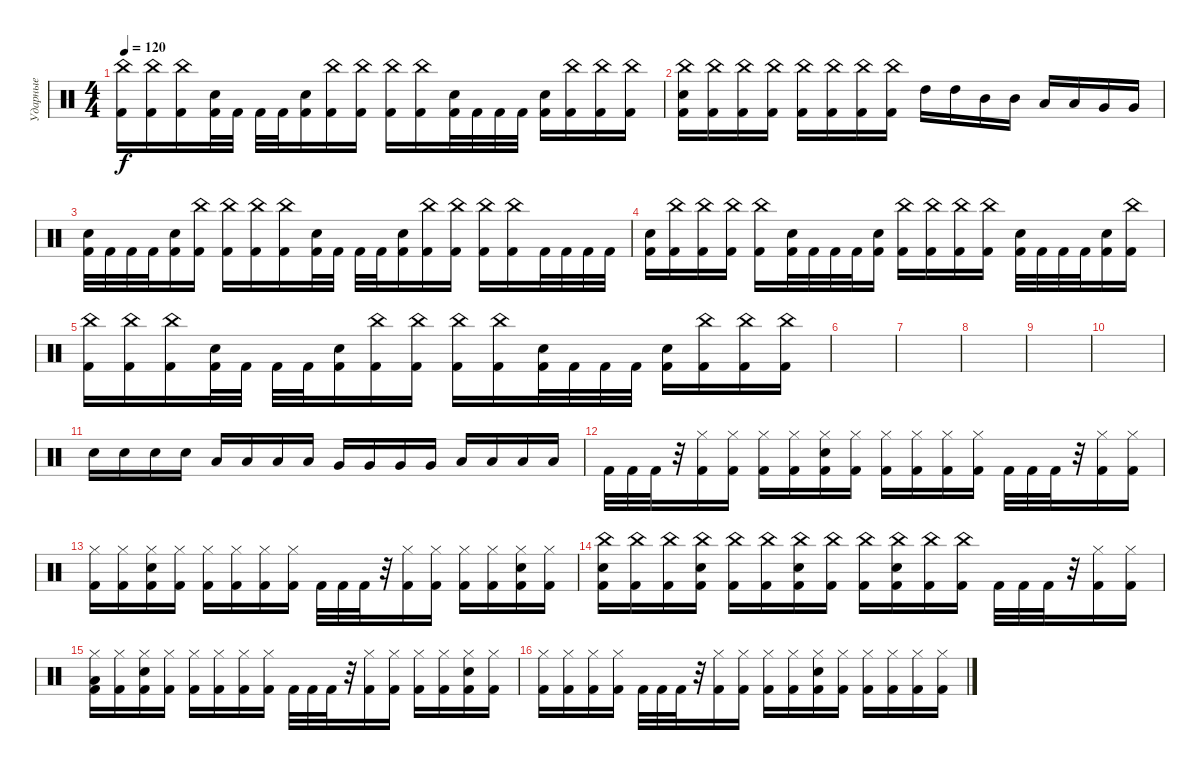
\track ("Ударные" "Ударные") {instrument percussion}
\staff {score}
\articulation defaults
\ts (4 4)
\tempo 120
\clef neutral
\ks c
("China (hit)" "Kick (hit) 2").16{dy f} ("China (hit)" "Kick (hit) 2").16 ("China (hit)" "Kick (hit) 2").16 ("Snare (hit) 2" "Kick (hit) 2").32 "Kick (hit) 2".32 "Kick (hit) 2".32 "Kick (hit) 2".32 ("Snare (hit) 2" "Kick (hit) 2").16 ("China (hit)" "Kick (hit) 2").16 ("China (hit)" "Kick (hit) 2").16 ("China (hit)" "Kick (hit) 2").16 ("China (hit)" "Kick (hit) 2").16 ("Snare (hit) 2" "Kick (hit) 2").32 "Kick (hit) 2".32 "Kick (hit) 2".32 "Kick (hit) 2".32 ("Snare (hit) 2" "Kick (hit) 2").16 ("China (hit)" "Kick (hit) 2").16 ("China (hit)" "Kick (hit) 2").16 ("China (hit)" "Kick (hit) 2").16 |
("China (hit)" "Snare (hit) 2" "Kick (hit) 2").16 ("China (hit)" "Kick (hit) 2").16 ("China (hit)" "Kick (hit) 2").16 ("China (hit)" "Kick (hit) 2").16 ("China (hit)" "Kick (hit) 2").16 ("China (hit)" "Kick (hit) 2").16 ("China (hit)" "Kick (hit) 2").16 ("China (hit)" "Kick (hit) 2").16 "High Tom (hit)".16 "High Tom (hit)".16 "Mid Tom (hit)".16 "Mid Tom (hit)".16 "Low Tom (hit)".16 "Low Tom (hit)".16 "Very Low Tom (hit)".16 "Very Low Tom (hit)".16 |
("Snare (hit) 2" "Kick (hit) 2").32 "Kick (hit) 2".32 "Kick (hit) 2".32 "Kick (hit) 2".32 ("Snare (hit) 2" "Kick (hit) 2").16 ("China (hit)" "Kick (hit) 2").16 ("China (hit)" "Kick (hit) 2").16 ("China (hit)" "Kick (hit) 2").16 ("China (hit)" "Kick (hit) 2").16 ("Snare (hit) 2" "Kick (hit) 2").32 "Kick (hit) 2".32 "Kick (hit) 2".32 "Kick (hit) 2".32 ("Snare (hit) 2" "Kick (hit) 2").16 ("China (hit)" "Kick (hit) 2").16 ("China (hit)" "Kick (hit) 2").16 ("China (hit)" "Kick (hit) 2").16 ("China (hit)" "Kick (hit) 2").16 "Kick (hit) 2".32 "Kick (hit) 2".32 "Kick (hit) 2".32 "Kick (hit) 2".32 |
("Snare (hit) 2" "Kick (hit) 2").16 ("China (hit)" "Kick (hit) 2").16 ("China (hit)" "Kick (hit) 2").16 ("China (hit)" "Kick (hit) 2").16 ("China (hit)" "Kick (hit) 2").16 ("Snare (hit) 2" "Kick (hit) 2").32 "Kick (hit) 2".32 "Kick (hit) 2".32 "Kick (hit) 2".32 ("Snare (hit) 2" "Kick (hit) 2").16 ("China (hit)" "Kick (hit) 2").16 ("China (hit)" "Kick (hit) 2").16 ("China (hit)" "Kick (hit) 2").16 ("China (hit)" "Kick (hit) 2").16 ("Snare (hit) 2" "Kick (hit) 2").32 "Kick (hit) 2".32 "Kick (hit) 2".32 "Kick (hit) 2".32 ("Snare (hit) 2" "Kick (hit) 2").16 ("China (hit)" "Kick (hit) 2").16 |
("China (hit)" "Kick (hit) 2").16 ("China (hit)" "Kick (hit) 2").16 ("China (hit)" "Kick (hit) 2").16 ("Snare (hit) 2" "Kick (hit) 2").32 "Kick (hit) 2".32 "Kick (hit) 2".32 "Kick (hit) 2".32 ("Snare (hit) 2" "Kick (hit) 2").16 ("China (hit)" "Kick (hit) 2").16 ("China (hit)" "Kick (hit) 2").16 ("China (hit)" "Kick (hit) 2").16 ("China (hit)" "Kick (hit) 2").16 ("Snare (hit) 2" "Kick (hit) 2").32 "Kick (hit) 2".32 "Kick (hit) 2".32 "Kick (hit) 2".32 ("Snare (hit) 2" "Kick (hit) 2").16 ("China (hit)" "Kick (hit) 2").16 ("China (hit)" "Kick (hit) 2").16 ("China (hit)" "Kick (hit) 2").16 |
|
|
|
|
|
"Snare (hit) 2".16 "Snare (hit) 2".16 "Snare (hit) 2".16 "Snare (hit) 2".16 "Low Tom (hit)".16 "Low Tom (hit)".16 "Low Tom (hit)".16 "Low Tom (hit)".16 "Very Low Tom (hit)".16 "Very Low Tom (hit)".16 "Very Low Tom (hit)".16 "Very Low Tom (hit)".16 "Low Floor Tom (hit)".16 "Low Floor Tom (hit)".16 "Low Floor Tom (hit)".16 "Low Floor Tom (hit)".16 |
"Kick (hit) 2".32 "Kick (hit) 2".32 "Kick (hit) 2".32 r.32 ("Hi-Hat (closed)" "Kick (hit) 2").16 ("Hi-Hat (closed)" "Kick (hit) 2").16 ("Hi-Hat (closed)" "Kick (hit) 2").16 ("Hi-Hat (closed)" "Kick (hit) 2").16 ("Snare (hit) 2" "Hi-Hat (closed)" "Kick (hit) 2").16 ("Hi-Hat (closed)" "Kick (hit) 2").16 ("Hi-Hat (closed)" "Kick (hit) 2").16 ("Hi-Hat (closed)" "Kick (hit) 2").16 ("Hi-Hat (closed)" "Kick (hit) 2").16 ("Hi-Hat (closed)" "Kick (hit) 2").16 "Kick (hit) 2".32 "Kick (hit) 2".32 "Kick (hit) 2".32 r.32 ("Hi-Hat (closed)" "Kick (hit) 2").16 ("Hi-Hat (closed)" "Kick (hit) 2").16 |
("Hi-Hat (closed)" "Kick (hit) 2").16 ("Hi-Hat (closed)" "Kick (hit) 2").16 ("Snare (hit) 2" "Hi-Hat (closed)" "Kick (hit) 2").16 ("Hi-Hat (closed)" "Kick (hit) 2").16 ("Hi-Hat (closed)" "Kick (hit) 2").16 ("Hi-Hat (closed)" "Kick (hit) 2").16 ("Hi-Hat (closed)" "Kick (hit) 2").16 ("Hi-Hat (closed)" "Kick (hit) 2").16 "Kick (hit) 2".32 "Kick (hit) 2".32 "Kick (hit) 2".32 r.32 ("Hi-Hat (closed)" "Kick (hit) 2").16 ("Hi-Hat (closed)" "Kick (hit) 2").16 ("Hi-Hat (closed)" "Kick (hit) 2").16 ("Hi-Hat (closed)" "Kick (hit) 2").16 ("Snare (hit) 2" "Hi-Hat (closed)" "Kick (hit) 2").16 ("Hi-Hat (closed)" "Kick (hit) 2").16 |
("China (hit)" "Snare (hit) 2" "Kick (hit) 2").16 ("China (hit)" "Kick (hit) 2").16 ("China (hit)" "Kick (hit) 2").16 ("China (hit)" "Snare (hit) 2" "Kick (hit) 2").16 ("China (hit)" "Kick (hit) 2").16 ("China (hit)" "Kick (hit) 2").16 ("China (hit)" "Snare (hit) 2" "Kick (hit) 2").16 ("China (hit)" "Kick (hit) 2").16 ("China (hit)" "Kick (hit) 2").16 ("China (hit)" "Snare (hit) 2" "Kick (hit) 2").16 ("China (hit)" "Kick (hit) 2").16 ("China (hit)" "Kick (hit) 2").16 "Kick (hit) 2".32 "Kick (hit) 2".32 "Kick (hit) 2".32 r.32 ("Hi-Hat (closed)" "Kick (hit) 2").16 ("Hi-Hat (closed)" "Kick (hit) 2").16 |
("Low Tom (hit)" "Hi-Hat (closed)" "Kick (hit) 2").16 ("Hi-Hat (closed)" "Kick (hit) 2").16 ("Snare (hit) 2" "Hi-Hat (closed)" "Kick (hit) 2").16 ("Hi-Hat (closed)" "Kick (hit) 2").16 ("Hi-Hat (closed)" "Kick (hit) 2").16 ("Hi-Hat (closed)" "Kick (hit) 2").16 ("Hi-Hat (closed)" "Kick (hit) 2").16 ("Hi-Hat (closed)" "Kick (hit) 2").16 "Kick (hit) 2".32 "Kick (hit) 2".32 "Kick (hit) 2".32 r.32 ("Hi-Hat (closed)" "Kick (hit) 2").16 ("Hi-Hat (closed)" "Kick (hit) 2").16 ("Hi-Hat (closed)" "Kick (hit) 2").16 ("Hi-Hat (closed)" "Kick (hit) 2").16 ("Snare (hit) 2" "Hi-Hat (closed)" "Kick (hit) 2").16 ("Hi-Hat (closed)" "Kick (hit) 2").16 |
("Hi-Hat (closed)" "Kick (hit) 2").16 ("Hi-Hat (closed)" "Kick (hit) 2").16 ("Hi-Hat (closed)" "Kick (hit) 2").16 ("Hi-Hat (closed)" "Kick (hit) 2").16 "Kick (hit) 2".32 "Kick (hit) 2".32 "Kick (hit) 2".32 r.32 ("Hi-Hat (closed)" "Kick (hit) 2").16 ("Hi-Hat (closed)" "Kick (hit) 2").16 ("Hi-Hat (closed)" "Kick (hit) 2").16 ("Hi-Hat (closed)" "Kick (hit) 2").16 ("Snare (hit) 2" "Hi-Hat (closed)" "Kick (hit) 2").16 ("Hi-Hat (closed)" "Kick (hit) 2").16 ("Hi-Hat (closed)" "Kick (hit) 2").16 ("Hi-Hat (closed)" "Kick (hit) 2").16 ("Hi-Hat (closed)" "Kick (hit) 2").16 ("Hi-Hat (closed)" "Kick (hit) 2").16
